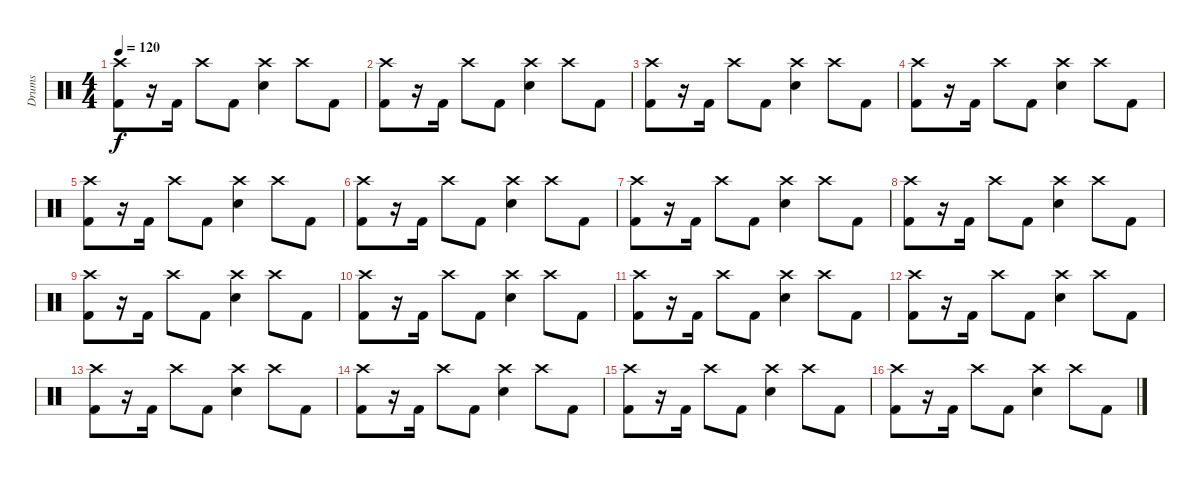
\track ("Drums" "Drums") {instrument percussion}
\staff {score}
\articulation defaults
\ts (4 4)
\tempo 120
\clef neutral
\ks c
("Crash high (hit)" "Kick (hit) 2").8{dy f} r.16 "Kick (hit) 2".16 "Crash high (hit)".8 "Kick (hit) 2".8 ("Crash high (hit)" "Electric Snare (hit)").4 "Crash high (hit)".8 "Kick (hit) 2".8 |
("Crash high (hit)" "Kick (hit) 2").8 r.16 "Kick (hit) 2".16 "Crash high (hit)".8 "Kick (hit) 2".8 ("Crash high (hit)" "Electric Snare (hit)").4 "Crash high (hit)".8 "Kick (hit) 2".8 |
("Crash high (hit)" "Kick (hit) 2").8 r.16 "Kick (hit) 2".16 "Crash high (hit)".8 "Kick (hit) 2".8 ("Crash high (hit)" "Electric Snare (hit)").4 "Crash high (hit)".8 "Kick (hit) 2".8 |
("Crash high (hit)" "Kick (hit) 2").8 r.16 "Kick (hit) 2".16 "Crash high (hit)".8 "Kick (hit) 2".8 ("Crash high (hit)" "Electric Snare (hit)").4 "Crash high (hit)".8 "Kick (hit) 2".8 |
("Crash high (hit)" "Kick (hit) 2").8 r.16 "Kick (hit) 2".16 "Crash high (hit)".8 "Kick (hit) 2".8 ("Crash high (hit)" "Electric Snare (hit)").4 "Crash high (hit)".8 "Kick (hit) 2".8 |
("Crash high (hit)" "Kick (hit) 2").8 r.16 "Kick (hit) 2".16 "Crash high (hit)".8 "Kick (hit) 2".8 ("Crash high (hit)" "Electric Snare (hit)").4 "Crash high (hit)".8 "Kick (hit) 2".8 |
("Crash high (hit)" "Kick (hit) 2").8 r.16 "Kick (hit) 2".16 "Crash high (hit)".8 "Kick (hit) 2".8 ("Crash high (hit)" "Electric Snare (hit)").4 "Crash high (hit)".8 "Kick (hit) 2".8 |
("Crash high (hit)" "Kick (hit) 2").8 r.16 "Kick (hit) 2".16 "Crash high (hit)".8 "Kick (hit) 2".8 ("Crash high (hit)" "Electric Snare (hit)").4 "Crash high (hit)".8 "Kick (hit) 2".8 |
("Crash high (hit)" "Kick (hit) 2").8 r.16 "Kick (hit) 2".16 "Crash high (hit)".8 "Kick (hit) 2".8 ("Crash high (hit)" "Electric Snare (hit)").4 "Crash high (hit)".8 "Kick (hit) 2".8 |
("Crash high (hit)" "Kick (hit) 2").8 r.16 "Kick (hit) 2".16 "Crash high (hit)".8 "Kick (hit) 2".8 ("Crash high (hit)" "Electric Snare (hit)").4 "Crash high (hit)".8 "Kick (hit) 2".8 |
("Crash high (hit)" "Kick (hit) 2").8 r.16 "Kick (hit) 2".16 "Crash high (hit)".8 "Kick (hit) 2".8 ("Crash high (hit)" "Electric Snare (hit)").4 "Crash high (hit)".8 "Kick (hit) 2".8 |
("Crash high (hit)" "Kick (hit) 2").8 r.16 "Kick (hit) 2".16 "Crash high (hit)".8 "Kick (hit) 2".8 ("Crash high (hit)" "Electric Snare (hit)").4 "Crash high (hit)".8 "Kick (hit) 2".8 |
("Crash high (hit)" "Kick (hit) 2").8 r.16 "Kick (hit) 2".16 "Crash high (hit)".8 "Kick (hit) 2".8 ("Crash high (hit)" "Electric Snare (hit)").4 "Crash high (hit)".8 "Kick (hit) 2".8 |
("Crash high (hit)" "Kick (hit) 2").8 r.16 "Kick (hit) 2".16 "Crash high (hit)".8 "Kick (hit) 2".8 ("Crash high (hit)" "Electric Snare (hit)").4 "Crash high (hit)".8 "Kick (hit) 2".8 |
("Crash high (hit)" "Kick (hit) 2").8 r.16 "Kick (hit) 2".16 "Crash high (hit)".8 "Kick (hit) 2".8 ("Crash high (hit)" "Electric Snare (hit)").4 "Crash high (hit)".8 "Kick (hit) 2".8 |
("Crash high (hit)" "Kick (hit) 2").8 r.16 "Kick (hit) 2".16 "Crash high (hit)".8 "Kick (hit) 2".8 ("Crash high (hit)" "Electric Snare (hit)").4 "Crash high (hit)".8 "Kick (hit) 2".8
